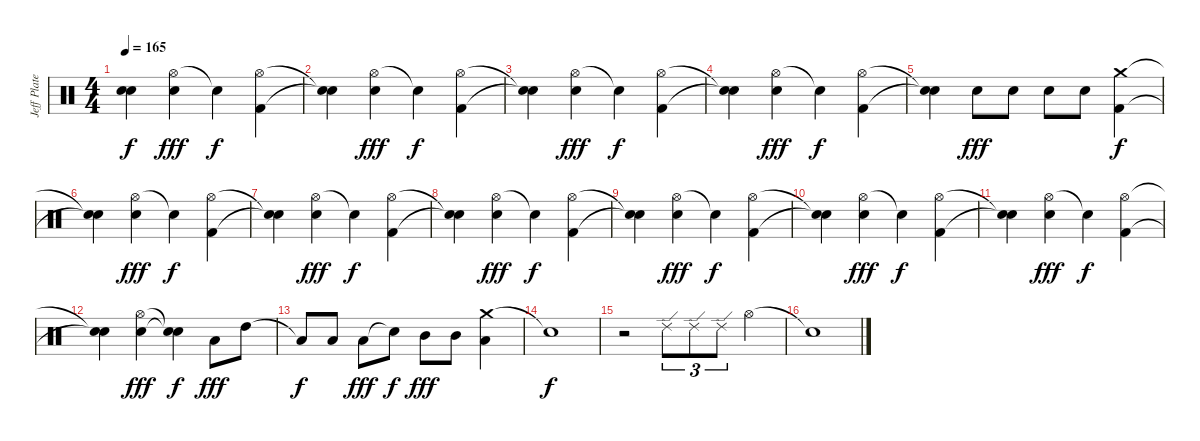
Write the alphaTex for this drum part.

\track ("Jeff Plate" "Jeff Plate") {instrument percussion}
\staff {score}
\articulation defaults
\ts (4 4)
\tempo 165
\clef neutral
\ks c
("Snare (hit)"{t} "Snare (hit)"{t}).4{dy f} ("Hi-Hat (open)" "Electric Snare (hit)").4{dy fff} "Snare (hit)"{t}.4{dy f} ("Hi-Hat (open)" "Kick (hit) 2").4 |
("Snare (hit)"{t} "Snare (hit)"{t}).4 ("Hi-Hat (open)" "Electric Snare (hit)").4{dy fff} "Snare (hit)"{t}.4{dy f} ("Hi-Hat (open)" "Kick (hit) 2").4 |
("Snare (hit)"{t} "Snare (hit)"{t}).4 ("Hi-Hat (open)" "Electric Snare (hit)").4{dy fff} "Snare (hit)"{t}.4{dy f} ("Hi-Hat (open)" "Kick (hit) 2").4 |
("Snare (hit)"{t} "Snare (hit)"{t}).4 ("Hi-Hat (open)" "Electric Snare (hit)").4{dy fff} "Snare (hit)"{t}.4{dy f} ("Hi-Hat (open)" "Kick (hit) 2").4 |
("Electric Snare (hit)"{t} "Snare (hit)"{t}).4 "Electric Snare (hit)".8{dy fff} "Electric Snare (hit)".8 "Electric Snare (hit)".8 "Electric Snare (hit)".8 ("Crash medium (hit)" "Kick (hit) 2").4{dy f} |
("Snare (hit)"{t} "Snare (hit)"{t}).4 ("Hi-Hat (open)" "Electric Snare (hit)").4{dy fff} "Snare (hit)"{t}.4{dy f} ("Hi-Hat (open)" "Kick (hit) 2").4 |
("Snare (hit)"{t} "Snare (hit)"{t}).4 ("Hi-Hat (open)" "Electric Snare (hit)").4{dy fff} "Snare (hit)"{t}.4{dy f} ("Hi-Hat (open)" "Kick (hit) 2").4 |
("Snare (hit)"{t} "Snare (hit)"{t}).4 ("Hi-Hat (open)" "Electric Snare (hit)").4{dy fff} "Snare (hit)"{t}.4{dy f} ("Hi-Hat (open)" "Kick (hit) 2").4 |
("Snare (hit)"{t} "Snare (hit)"{t}).4 ("Hi-Hat (open)" "Electric Snare (hit)").4{dy fff} "Snare (hit)"{t}.4{dy f} ("Hi-Hat (open)" "Kick (hit) 2").4 |
("Snare (hit)"{t} "Snare (hit)"{t}).4 ("Hi-Hat (open)" "Electric Snare (hit)").4{dy fff} "Snare (hit)"{t}.4{dy f} ("Hi-Hat (open)" "Kick (hit) 2").4 |
("Snare (hit)"{t} "Snare (hit)"{t}).4 ("Hi-Hat (open)" "Electric Snare (hit)").4{dy fff} "Snare (hit)"{t}.4{dy f} ("Hi-Hat (open)" "Kick (hit) 2").4 |
("Snare (hit)"{t} "Snare (hit)"{t}).4 ("Hi-Hat (open)" "Electric Snare (hit)").4{dy fff} ("Snare (hit)"{t} "Snare (hit)"{t}).4{dy f} "Low Tom (hit)".8{dy fff} "High Tom (hit)".8 |
"Low Tom (hit)"{t}.8{dy f} "Low Tom (hit)".8 "Low Tom (hit)".8{dy fff} "Snare (hit)"{t}.8{dy f} "Mid Tom (hit)".8{dy fff} "Mid Tom (hit)".8 ("Crash medium (hit)" "Low Tom (hit)").4 |
"Snare (hit)"{t}.1{dy f} |
r.2 "Ride (edge) 2".8{tu (3 2)} "Ride (edge) 2".8{tu (3 2)} "Ride (edge) 2".8{tu (3 2)} "Hi-Hat (open)".4 |
"Snare (hit)"{t}.1
